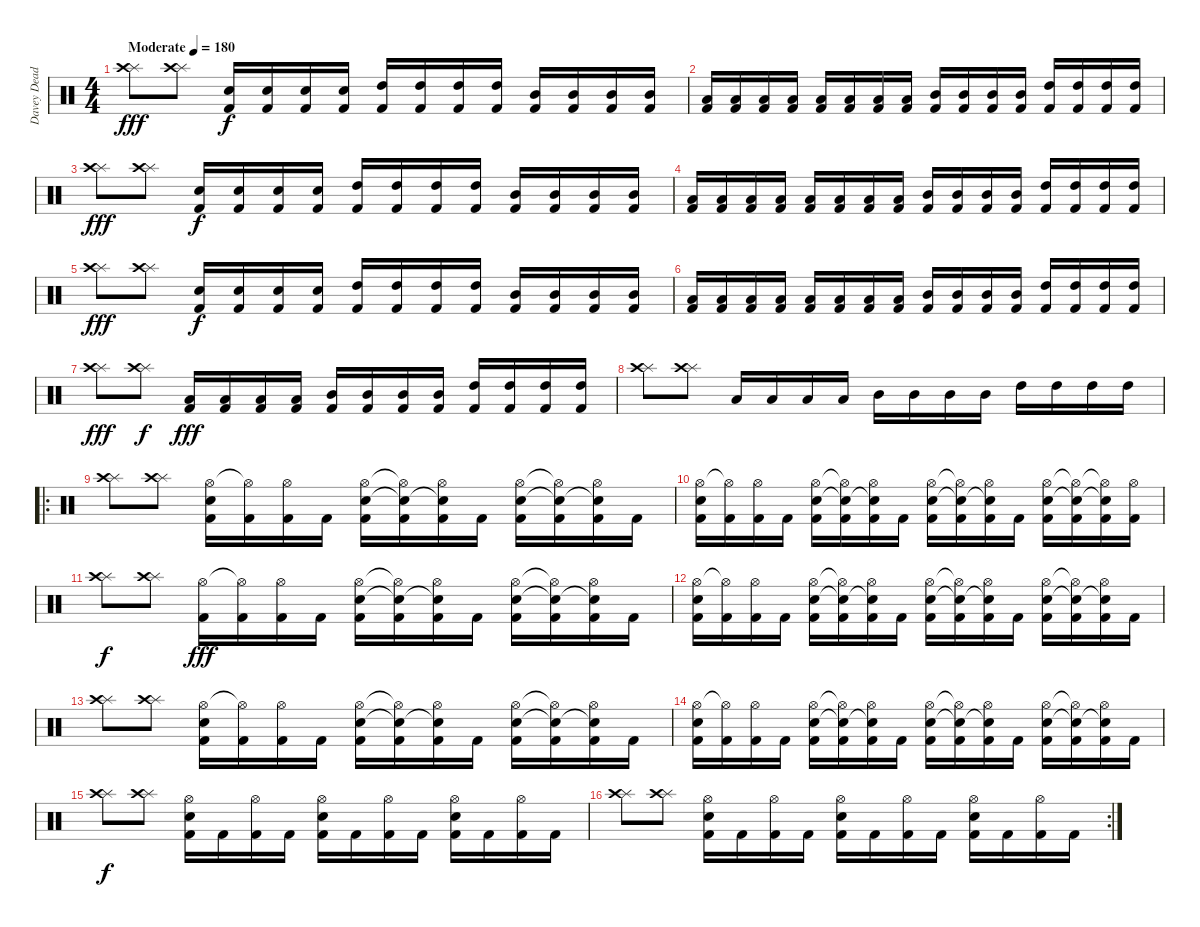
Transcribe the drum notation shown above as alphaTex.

\track ("Davey Dead" "Davey Dead") {instrument percussion}
\staff {score}
\articulation defaults
\ts (4 4)
\tempo (180 "Moderate")
\clef neutral
\ks c
("Splash (hit)" "Crash high (hit)").8{dy fff} ("Splash (hit)" "Crash high (hit)").8 ("Electric Snare (hit)" "Kick (hit) 2").16{dy f} ("Electric Snare (hit)" "Kick (hit) 2").16 ("Electric Snare (hit)" "Kick (hit) 2").16 ("Electric Snare (hit)" "Kick (hit) 2").16 ("High Tom (hit)" "Kick (hit) 2").16 ("High Tom (hit)" "Kick (hit) 2").16 ("High Tom (hit)" "Kick (hit) 2").16 ("High Tom (hit)" "Kick (hit) 2").16 ("Mid Tom (hit)" "Kick (hit) 2").16 ("Mid Tom (hit)" "Kick (hit) 2").16 ("Mid Tom (hit)" "Kick (hit) 2").16 ("Mid Tom (hit)" "Kick (hit) 2").16 |
("Low Tom (hit)" "Kick (hit) 2").16 ("Low Tom (hit)" "Kick (hit) 2").16 ("Low Tom (hit)" "Kick (hit) 2").16 ("Low Tom (hit)" "Kick (hit) 2").16 ("Low Tom (hit)" "Kick (hit) 2").16 ("Low Tom (hit)" "Kick (hit) 2").16 ("Low Tom (hit)" "Kick (hit) 2").16 ("Low Tom (hit)" "Kick (hit) 2").16 ("Mid Tom (hit)" "Kick (hit) 2").16 ("Mid Tom (hit)" "Kick (hit) 2").16 ("Mid Tom (hit)" "Kick (hit) 2").16 ("Mid Tom (hit)" "Kick (hit) 2").16 ("High Tom (hit)" "Kick (hit) 2").16 ("High Tom (hit)" "Kick (hit) 2").16 ("High Tom (hit)" "Kick (hit) 2").16 ("High Tom (hit)" "Kick (hit) 2").16 |
("Splash (hit)" "Crash high (hit)").8{dy fff} ("Splash (hit)" "Crash high (hit)").8 ("Electric Snare (hit)" "Kick (hit) 2").16{dy f} ("Electric Snare (hit)" "Kick (hit) 2").16 ("Electric Snare (hit)" "Kick (hit) 2").16 ("Electric Snare (hit)" "Kick (hit) 2").16 ("High Tom (hit)" "Kick (hit) 2").16 ("High Tom (hit)" "Kick (hit) 2").16 ("High Tom (hit)" "Kick (hit) 2").16 ("High Tom (hit)" "Kick (hit) 2").16 ("Mid Tom (hit)" "Kick (hit) 2").16 ("Mid Tom (hit)" "Kick (hit) 2").16 ("Mid Tom (hit)" "Kick (hit) 2").16 ("Mid Tom (hit)" "Kick (hit) 2").16 |
("Low Tom (hit)" "Kick (hit) 2").16 ("Low Tom (hit)" "Kick (hit) 2").16 ("Low Tom (hit)" "Kick (hit) 2").16 ("Low Tom (hit)" "Kick (hit) 2").16 ("Low Tom (hit)" "Kick (hit) 2").16 ("Low Tom (hit)" "Kick (hit) 2").16 ("Low Tom (hit)" "Kick (hit) 2").16 ("Low Tom (hit)" "Kick (hit) 2").16 ("Mid Tom (hit)" "Kick (hit) 2").16 ("Mid Tom (hit)" "Kick (hit) 2").16 ("Mid Tom (hit)" "Kick (hit) 2").16 ("Mid Tom (hit)" "Kick (hit) 2").16 ("High Tom (hit)" "Kick (hit) 2").16 ("High Tom (hit)" "Kick (hit) 2").16 ("High Tom (hit)" "Kick (hit) 2").16 ("High Tom (hit)" "Kick (hit) 2").16 |
("Splash (hit)" "Crash high (hit)").8{dy fff} ("Splash (hit)" "Crash high (hit)").8 ("Electric Snare (hit)" "Kick (hit) 2").16{dy f} ("Electric Snare (hit)" "Kick (hit) 2").16 ("Electric Snare (hit)" "Kick (hit) 2").16 ("Electric Snare (hit)" "Kick (hit) 2").16 ("High Tom (hit)" "Kick (hit) 2").16 ("High Tom (hit)" "Kick (hit) 2").16 ("High Tom (hit)" "Kick (hit) 2").16 ("High Tom (hit)" "Kick (hit) 2").16 ("Mid Tom (hit)" "Kick (hit) 2").16 ("Mid Tom (hit)" "Kick (hit) 2").16 ("Mid Tom (hit)" "Kick (hit) 2").16 ("Mid Tom (hit)" "Kick (hit) 2").16 |
("Low Tom (hit)" "Kick (hit) 2").16 ("Low Tom (hit)" "Kick (hit) 2").16 ("Low Tom (hit)" "Kick (hit) 2").16 ("Low Tom (hit)" "Kick (hit) 2").16 ("Low Tom (hit)" "Kick (hit) 2").16 ("Low Tom (hit)" "Kick (hit) 2").16 ("Low Tom (hit)" "Kick (hit) 2").16 ("Low Tom (hit)" "Kick (hit) 2").16 ("Mid Tom (hit)" "Kick (hit) 2").16 ("Mid Tom (hit)" "Kick (hit) 2").16 ("Mid Tom (hit)" "Kick (hit) 2").16 ("Mid Tom (hit)" "Kick (hit) 2").16 ("High Tom (hit)" "Kick (hit) 2").16 ("High Tom (hit)" "Kick (hit) 2").16 ("High Tom (hit)" "Kick (hit) 2").16 ("High Tom (hit)" "Kick (hit) 2").16 |
("Splash (hit)" "Crash high (hit)").8{dy fff} ("Splash (hit)" "Crash high (hit)").8{dy f} ("Low Tom (hit)" "Kick (hit) 2").16{dy fff} ("Low Tom (hit)" "Kick (hit) 2").16 ("Low Tom (hit)" "Kick (hit) 2").16 ("Low Tom (hit)" "Kick (hit) 2").16 ("Mid Tom (hit)" "Kick (hit) 2").16 ("Mid Tom (hit)" "Kick (hit) 2").16 ("Mid Tom (hit)" "Kick (hit) 2").16 ("Mid Tom (hit)" "Kick (hit) 2").16 ("High Tom (hit)" "Kick (hit) 2").16 ("High Tom (hit)" "Kick (hit) 2").16 ("High Tom (hit)" "Kick (hit) 2").16 ("High Tom (hit)" "Kick (hit) 2").16 |
("Splash (hit)" "Crash high (hit)").8 ("Splash (hit)" "Crash high (hit)").8 "Low Tom (hit)".16 "Low Tom (hit)".16 "Low Tom (hit)".16 "Low Tom (hit)".16 "Mid Tom (hit)".16 "Mid Tom (hit)".16 "Mid Tom (hit)".16 "Mid Tom (hit)".16 "High Tom (hit)".16 "High Tom (hit)".16 "High Tom (hit)".16 "High Tom (hit)".16 |
\ro
("Splash (hit)" "Crash high (hit)").8 ("Splash (hit)" "Crash high (hit)").8 ("Hi-Hat (open)" "Electric Snare (hit)" "Kick (hit) 2").16 ("Hi-Hat (open)"{t} "Kick (hit) 2").16 ("Hi-Hat (open)" "Kick (hit) 2").16 "Kick (hit) 2".16 ("Hi-Hat (open)" "Electric Snare (hit)" "Kick (hit) 2").16 ("Hi-Hat (open)"{t} "Electric Snare (hit)"{t} "Kick (hit) 2").16 ("Hi-Hat (open)" "Electric Snare (hit)"{t} "Kick (hit) 2").16 "Kick (hit) 2".16 ("Hi-Hat (open)" "Electric Snare (hit)" "Kick (hit) 2").16 ("Hi-Hat (open)"{t} "Electric Snare (hit)"{t} "Kick (hit) 2").16 ("Hi-Hat (open)" "Electric Snare (hit)"{t} "Kick (hit) 2").16 "Kick (hit) 2".16 |
("Hi-Hat (open)" "Electric Snare (hit)" "Kick (hit) 2").16 ("Hi-Hat (open)"{t} "Kick (hit) 2").16 ("Hi-Hat (open)" "Kick (hit) 2").16 "Kick (hit) 2".16 ("Hi-Hat (open)" "Electric Snare (hit)" "Kick (hit) 2").16 ("Hi-Hat (open)"{t} "Electric Snare (hit)"{t} "Kick (hit) 2").16 ("Hi-Hat (open)" "Electric Snare (hit)"{t} "Kick (hit) 2").16 "Kick (hit) 2".16 ("Hi-Hat (open)" "Electric Snare (hit)" "Kick (hit) 2").16 ("Hi-Hat (open)"{t} "Electric Snare (hit)"{t} "Kick (hit) 2").16 ("Hi-Hat (open)" "Electric Snare (hit)"{t} "Kick (hit) 2").16 "Kick (hit) 2".16 ("Hi-Hat (open)" "Electric Snare (hit)" "Kick (hit) 2").16 ("Hi-Hat (open)"{t} "Electric Snare (hit)"{t} "Kick (hit) 2").16 ("Hi-Hat (open)"{t} "Electric Snare (hit)"{t} "Kick (hit) 2").16 ("Hi-Hat (open)" "Kick (hit) 2").16 |
("Splash (hit)" "Crash high (hit)").8{dy f} ("Splash (hit)" "Crash high (hit)").8 ("Hi-Hat (open)" "Kick (hit) 2").16{dy fff} ("Hi-Hat (open)"{t} "Kick (hit) 2").16 ("Hi-Hat (open)" "Kick (hit) 2").16 "Kick (hit) 2".16 ("Hi-Hat (open)" "Electric Snare (hit)" "Kick (hit) 2").16 ("Hi-Hat (open)"{t} "Electric Snare (hit)"{t} "Kick (hit) 2").16 ("Hi-Hat (open)" "Electric Snare (hit)"{t} "Kick (hit) 2").16 "Kick (hit) 2".16 ("Hi-Hat (open)" "Electric Snare (hit)" "Kick (hit) 2").16 ("Hi-Hat (open)"{t} "Electric Snare (hit)"{t} "Kick (hit) 2").16 ("Hi-Hat (open)" "Electric Snare (hit)"{t} "Kick (hit) 2").16 "Kick (hit) 2".16 |
("Hi-Hat (open)" "Electric Snare (hit)" "Kick (hit) 2").16 ("Hi-Hat (open)"{t} "Kick (hit) 2").16 ("Hi-Hat (open)" "Kick (hit) 2").16 "Kick (hit) 2".16 ("Hi-Hat (open)" "Electric Snare (hit)" "Kick (hit) 2").16 ("Hi-Hat (open)"{t} "Electric Snare (hit)"{t} "Kick (hit) 2").16 ("Hi-Hat (open)" "Electric Snare (hit)"{t} "Kick (hit) 2").16 "Kick (hit) 2".16 ("Hi-Hat (open)" "Electric Snare (hit)" "Kick (hit) 2").16 ("Hi-Hat (open)"{t} "Electric Snare (hit)"{t} "Kick (hit) 2").16 ("Hi-Hat (open)" "Electric Snare (hit)"{t} "Kick (hit) 2").16 "Kick (hit) 2".16 ("Hi-Hat (open)" "Electric Snare (hit)" "Kick (hit) 2").16 ("Hi-Hat (open)"{t} "Electric Snare (hit)"{t} "Kick (hit) 2").16 ("Hi-Hat (open)" "Electric Snare (hit)"{t} "Kick (hit) 2").16 "Kick (hit) 2".16 |
("Splash (hit)" "Crash high (hit)").8 ("Splash (hit)" "Crash high (hit)").8 ("Hi-Hat (open)" "Electric Snare (hit)" "Kick (hit) 2").16 ("Hi-Hat (open)"{t} "Kick (hit) 2").16 ("Hi-Hat (open)" "Kick (hit) 2").16 "Kick (hit) 2".16 ("Hi-Hat (open)" "Electric Snare (hit)" "Kick (hit) 2").16 ("Hi-Hat (open)"{t} "Electric Snare (hit)"{t} "Kick (hit) 2").16 ("Hi-Hat (open)" "Electric Snare (hit)"{t} "Kick (hit) 2").16 "Kick (hit) 2".16 ("Hi-Hat (open)" "Electric Snare (hit)" "Kick (hit) 2").16 ("Hi-Hat (open)"{t} "Electric Snare (hit)"{t} "Kick (hit) 2").16 ("Hi-Hat (open)" "Electric Snare (hit)"{t} "Kick (hit) 2").16 "Kick (hit) 2".16 |
("Hi-Hat (open)" "Electric Snare (hit)" "Kick (hit) 2").16 ("Hi-Hat (open)"{t} "Kick (hit) 2").16 ("Hi-Hat (open)" "Kick (hit) 2").16 "Kick (hit) 2".16 ("Hi-Hat (open)" "Electric Snare (hit)" "Kick (hit) 2").16 ("Hi-Hat (open)"{t} "Electric Snare (hit)"{t} "Kick (hit) 2").16 ("Hi-Hat (open)" "Electric Snare (hit)"{t} "Kick (hit) 2").16 "Kick (hit) 2".16 ("Hi-Hat (open)" "Electric Snare (hit)" "Kick (hit) 2").16 ("Hi-Hat (open)"{t} "Electric Snare (hit)"{t} "Kick (hit) 2").16 ("Hi-Hat (open)" "Electric Snare (hit)"{t} "Kick (hit) 2").16 "Kick (hit) 2".16 ("Hi-Hat (open)" "Electric Snare (hit)" "Kick (hit) 2").16 ("Hi-Hat (open)"{t} "Electric Snare (hit)"{t} "Kick (hit) 2").16 ("Hi-Hat (open)" "Electric Snare (hit)"{t} "Kick (hit) 2").16 "Kick (hit) 2".16 |
("Splash (hit)" "Crash high (hit)").8{dy f} ("Splash (hit)" "Crash high (hit)").8 ("Hi-Hat (open)" "Snare (hit)" "Kick (hit) 2").16 "Kick (hit) 2".16 ("Hi-Hat (open)" "Kick (hit) 2").16 "Kick (hit) 2".16 ("Hi-Hat (open)" "Electric Snare (hit)" "Kick (hit) 2").16 "Kick (hit) 2".16 ("Hi-Hat (open)" "Kick (hit) 2").16 "Kick (hit) 2".16 ("Hi-Hat (open)" "Electric Snare (hit)" "Kick (hit) 2").16 "Kick (hit) 2".16 ("Hi-Hat (open)" "Kick (hit) 2").16 "Kick (hit) 2".16 |
\rc 2
("Splash (hit)" "Crash high (hit)").8 ("Splash (hit)" "Crash high (hit)").8 ("Hi-Hat (open)" "Snare (hit)" "Kick (hit) 2").16 "Kick (hit) 2".16 ("Hi-Hat (open)" "Kick (hit) 2").16 "Kick (hit) 2".16 ("Hi-Hat (open)" "Electric Snare (hit)" "Kick (hit) 2").16 "Kick (hit) 2".16 ("Hi-Hat (open)" "Kick (hit) 2").16 "Kick (hit) 2".16 ("Hi-Hat (open)" "Electric Snare (hit)" "Kick (hit) 2").16 "Kick (hit) 2".16 ("Hi-Hat (open)" "Kick (hit) 2").16 "Kick (hit) 2".16
